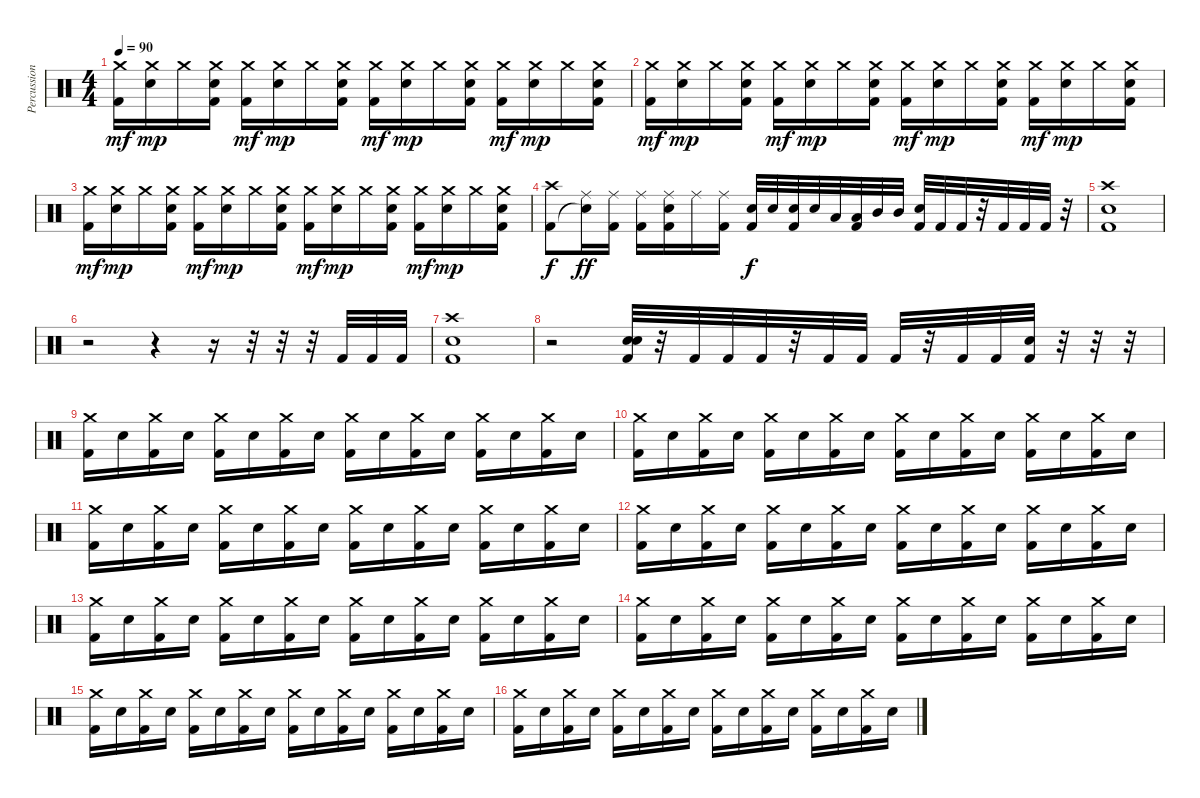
\track ("Percussioni" "Percussion") {instrument percussion}
\staff {score}
\articulation defaults
\ts (4 4)
\tempo 90
\clef neutral
\ks c
("Kick (hit) 2" "Crash medium (hit)").16{dy mf} ("Electric Snare (hit)" "Crash medium (hit)").16{dy mp} "Crash medium (hit)".16 ("Kick (hit) 2" "Electric Snare (hit)" "Crash medium (hit)").16 ("Kick (hit) 2" "Crash medium (hit)").16{dy mf} ("Electric Snare (hit)" "Crash medium (hit)").16{dy mp} "Crash medium (hit)".16 ("Kick (hit) 2" "Electric Snare (hit)" "Crash medium (hit)").16 ("Kick (hit) 2" "Crash medium (hit)").16{dy mf} ("Electric Snare (hit)" "Crash medium (hit)").16{dy mp} "Crash medium (hit)".16 ("Kick (hit) 2" "Electric Snare (hit)" "Crash medium (hit)").16 ("Kick (hit) 2" "Crash medium (hit)").16{dy mf} ("Electric Snare (hit)" "Crash medium (hit)").16{dy mp} "Crash medium (hit)".16 ("Kick (hit) 2" "Electric Snare (hit)" "Crash medium (hit)").16 |
("Kick (hit) 2" "Crash medium (hit)").16{dy mf} ("Electric Snare (hit)" "Crash medium (hit)").16{dy mp} "Crash medium (hit)".16 ("Kick (hit) 2" "Electric Snare (hit)" "Crash medium (hit)").16 ("Kick (hit) 2" "Crash medium (hit)").16{dy mf} ("Electric Snare (hit)" "Crash medium (hit)").16{dy mp} "Crash medium (hit)".16 ("Kick (hit) 2" "Electric Snare (hit)" "Crash medium (hit)").16 ("Kick (hit) 2" "Crash medium (hit)").16{dy mf} ("Electric Snare (hit)" "Crash medium (hit)").16{dy mp} "Crash medium (hit)".16 ("Kick (hit) 2" "Electric Snare (hit)" "Crash medium (hit)").16 ("Kick (hit) 2" "Crash medium (hit)").16{dy mf} ("Electric Snare (hit)" "Crash medium (hit)").16{dy mp} "Crash medium (hit)".16 ("Kick (hit) 2" "Electric Snare (hit)" "Crash medium (hit)").16 |
("Kick (hit) 2" "Crash medium (hit)").16{dy mf} ("Electric Snare (hit)" "Crash medium (hit)").16{dy mp} "Crash medium (hit)".16 ("Kick (hit) 2" "Electric Snare (hit)" "Crash medium (hit)").16 ("Kick (hit) 2" "Crash medium (hit)").16{dy mf} ("Electric Snare (hit)" "Crash medium (hit)").16{dy mp} "Crash medium (hit)".16 ("Kick (hit) 2" "Electric Snare (hit)" "Crash medium (hit)").16 ("Kick (hit) 2" "Crash medium (hit)").16{dy mf} ("Electric Snare (hit)" "Crash medium (hit)").16{dy mp} "Crash medium (hit)".16 ("Kick (hit) 2" "Electric Snare (hit)" "Crash medium (hit)").16 ("Kick (hit) 2" "Crash medium (hit)").16{dy mf} ("Electric Snare (hit)" "Crash medium (hit)").16{dy mp} "Crash medium (hit)".16 ("Kick (hit) 2" "Electric Snare (hit)" "Crash medium (hit)").16 |
("Kick (hit) 2" "Crash high (hit)").8{dy f} ("Snare (hit)"{t} "Ride (middle)").16{dy ff} ("Kick (hit) 2" "Ride (middle)").16 ("Kick (hit) 2" "Ride (middle)").16 ("Kick (hit) 2" "Electric Snare (hit)" "Ride (middle)").16 "Ride (middle)".16 ("Kick (hit) 2" "Ride (middle)").16 ("Kick (hit) 2" "Electric Snare (hit)").32{dy f} "Electric Snare (hit)".32 ("Kick (hit) 2" "Electric Snare (hit)").32 "Electric Snare (hit)".32 "Low Tom (hit)".32 ("Kick (hit) 2" "Low Tom (hit)").32 "Mid Tom (hit)".32 "Mid Tom (hit)".32 ("Kick (hit) 2" "Electric Snare (hit)").32 "Kick (hit) 2".32 "Kick (hit) 2".32 r.32 "Kick (hit) 2".32 "Kick (hit) 2".32 "Kick (hit) 2".32 r.32 |
("Kick (hit) 2" "Electric Snare (hit)" "Crash high (hit)").1 |
r.2 r.4 r.16 r.32 r.32 r.32 "Kick (hit) 2".32 "Kick (hit) 2".32 "Kick (hit) 2".32 |
("Kick (hit) 2" "Electric Snare (hit)" "Crash high (hit)").1 |
r.2 ("Kick (hit) 2" "Electric Snare (hit)" "Electric Snare (hit)").32 r.32 "Kick (hit) 2".32 "Kick (hit) 2".32 "Kick (hit) 2".32 r.32 "Kick (hit) 2".32 "Kick (hit) 2".32 "Kick (hit) 2".32 r.32 "Kick (hit) 2".32 "Kick (hit) 2".32 ("Kick (hit) 2" "Electric Snare (hit)").32 r.32 r.32 r.32 |
("Kick (hit) 2" "Crash medium (hit)").16 "Electric Snare (hit)".16 ("Kick (hit) 2" "Crash medium (hit)").16 "Electric Snare (hit)".16 ("Kick (hit) 2" "Crash medium (hit)").16 "Electric Snare (hit)".16 ("Kick (hit) 2" "Crash medium (hit)").16 "Electric Snare (hit)".16 ("Kick (hit) 2" "Crash medium (hit)").16 "Electric Snare (hit)".16 ("Kick (hit) 2" "Crash medium (hit)").16 "Electric Snare (hit)".16 ("Kick (hit) 2" "Crash medium (hit)").16 "Electric Snare (hit)".16 ("Kick (hit) 2" "Crash medium (hit)").16 "Electric Snare (hit)".16 |
("Kick (hit) 2" "Crash medium (hit)").16 "Electric Snare (hit)".16 ("Kick (hit) 2" "Crash medium (hit)").16 "Electric Snare (hit)".16 ("Kick (hit) 2" "Crash medium (hit)").16 "Electric Snare (hit)".16 ("Kick (hit) 2" "Crash medium (hit)").16 "Electric Snare (hit)".16 ("Kick (hit) 2" "Crash medium (hit)").16 "Electric Snare (hit)".16 ("Kick (hit) 2" "Crash medium (hit)").16 "Electric Snare (hit)".16 ("Kick (hit) 2" "Crash medium (hit)").16 "Electric Snare (hit)".16 ("Kick (hit) 2" "Crash medium (hit)").16 "Electric Snare (hit)".16 |
("Kick (hit) 2" "Crash medium (hit)").16 "Electric Snare (hit)".16 ("Kick (hit) 2" "Crash medium (hit)").16 "Electric Snare (hit)".16 ("Kick (hit) 2" "Crash medium (hit)").16 "Electric Snare (hit)".16 ("Kick (hit) 2" "Crash medium (hit)").16 "Electric Snare (hit)".16 ("Kick (hit) 2" "Crash medium (hit)").16 "Electric Snare (hit)".16 ("Kick (hit) 2" "Crash medium (hit)").16 "Electric Snare (hit)".16 ("Kick (hit) 2" "Crash medium (hit)").16 "Electric Snare (hit)".16 ("Kick (hit) 2" "Crash medium (hit)").16 "Electric Snare (hit)".16 |
("Kick (hit) 2" "Crash medium (hit)").16 "Electric Snare (hit)".16 ("Kick (hit) 2" "Crash medium (hit)").16 "Electric Snare (hit)".16 ("Kick (hit) 2" "Crash medium (hit)").16 "Electric Snare (hit)".16 ("Kick (hit) 2" "Crash medium (hit)").16 "Electric Snare (hit)".16 ("Kick (hit) 2" "Crash medium (hit)").16 "Electric Snare (hit)".16 ("Kick (hit) 2" "Crash medium (hit)").16 "Electric Snare (hit)".16 ("Kick (hit) 2" "Crash medium (hit)").16 "Electric Snare (hit)".16 ("Kick (hit) 2" "Crash medium (hit)").16 "Electric Snare (hit)".16 |
("Kick (hit) 2" "Crash medium (hit)").16 "Electric Snare (hit)".16 ("Kick (hit) 2" "Crash medium (hit)").16 "Electric Snare (hit)".16 ("Kick (hit) 2" "Crash medium (hit)").16 "Electric Snare (hit)".16 ("Kick (hit) 2" "Crash medium (hit)").16 "Electric Snare (hit)".16 ("Kick (hit) 2" "Crash medium (hit)").16 "Electric Snare (hit)".16 ("Kick (hit) 2" "Crash medium (hit)").16 "Electric Snare (hit)".16 ("Kick (hit) 2" "Crash medium (hit)").16 "Electric Snare (hit)".16 ("Kick (hit) 2" "Crash medium (hit)").16 "Electric Snare (hit)".16 |
("Kick (hit) 2" "Crash medium (hit)").16 "Electric Snare (hit)".16 ("Kick (hit) 2" "Crash medium (hit)").16 "Electric Snare (hit)".16 ("Kick (hit) 2" "Crash medium (hit)").16 "Electric Snare (hit)".16 ("Kick (hit) 2" "Crash medium (hit)").16 "Electric Snare (hit)".16 ("Kick (hit) 2" "Crash medium (hit)").16 "Electric Snare (hit)".16 ("Kick (hit) 2" "Crash medium (hit)").16 "Electric Snare (hit)".16 ("Kick (hit) 2" "Crash medium (hit)").16 "Electric Snare (hit)".16 ("Kick (hit) 2" "Crash medium (hit)").16 "Electric Snare (hit)".16 |
("Kick (hit) 2" "Crash medium (hit)").16 "Electric Snare (hit)".16 ("Kick (hit) 2" "Crash medium (hit)").16 "Electric Snare (hit)".16 ("Kick (hit) 2" "Crash medium (hit)").16 "Electric Snare (hit)".16 ("Kick (hit) 2" "Crash medium (hit)").16 "Electric Snare (hit)".16 ("Kick (hit) 2" "Crash medium (hit)").16 "Electric Snare (hit)".16 ("Kick (hit) 2" "Crash medium (hit)").16 "Electric Snare (hit)".16 ("Kick (hit) 2" "Crash medium (hit)").16 "Electric Snare (hit)".16 ("Kick (hit) 2" "Crash medium (hit)").16 "Electric Snare (hit)".16 |
("Kick (hit) 2" "Crash medium (hit)").16 "Electric Snare (hit)".16 ("Kick (hit) 2" "Crash medium (hit)").16 "Electric Snare (hit)".16 ("Kick (hit) 2" "Crash medium (hit)").16 "Electric Snare (hit)".16 ("Kick (hit) 2" "Crash medium (hit)").16 "Electric Snare (hit)".16 ("Kick (hit) 2" "Crash medium (hit)").16 "Electric Snare (hit)".16 ("Kick (hit) 2" "Crash medium (hit)").16 "Electric Snare (hit)".16 ("Kick (hit) 2" "Crash medium (hit)").16 "Electric Snare (hit)".16 ("Kick (hit) 2" "Crash medium (hit)").16 "Electric Snare (hit)".16
